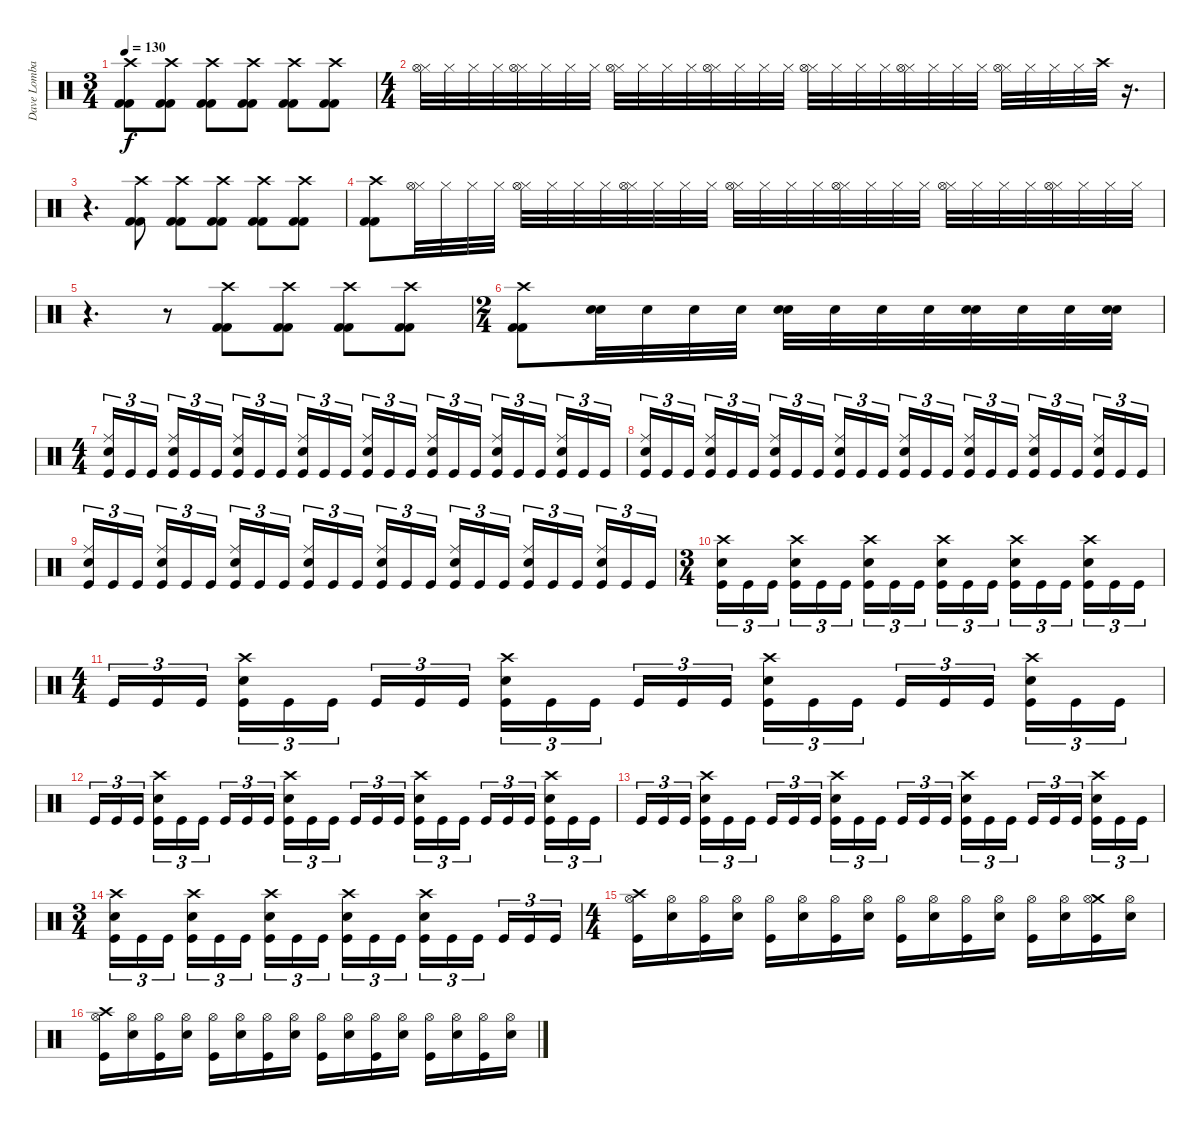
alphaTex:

\track ("Dave Lombardo" "Dave Lomba") {instrument percussion}
\staff {score}
\articulation defaults
\ts (3 4)
\tempo 130
\clef neutral
\ks c
("Crash high (hit)" "Kick (hit) 2" "Kick (hit) 2").8{dy f} ("Crash high (hit)" "Kick (hit) 2" "Kick (hit) 2").8 ("Crash high (hit)" "Kick (hit) 2" "Kick (hit) 2").8 ("Crash high (hit)" "Kick (hit) 2" "Kick (hit) 2").8 ("Crash high (hit)" "Kick (hit) 2" "Kick (hit) 2").8 ("Crash high (hit)" "Kick (hit) 2" "Kick (hit) 2").8 |
\ts (4 4)
("Hi-Hat (closed)" "Hi-Hat (open)").32 "Hi-Hat (closed)".32 "Hi-Hat (closed)".32 "Hi-Hat (closed)".32 ("Hi-Hat (closed)" "Hi-Hat (open)").32 "Hi-Hat (closed)".32 "Hi-Hat (closed)".32 "Hi-Hat (closed)".32 ("Hi-Hat (closed)" "Hi-Hat (open)").32 "Hi-Hat (closed)".32 "Hi-Hat (closed)".32 "Hi-Hat (closed)".32 ("Hi-Hat (closed)" "Hi-Hat (open)").32 "Hi-Hat (closed)".32 "Hi-Hat (closed)".32 "Hi-Hat (closed)".32 ("Hi-Hat (closed)" "Hi-Hat (open)").32 "Hi-Hat (closed)".32 "Hi-Hat (closed)".32 "Hi-Hat (closed)".32 ("Hi-Hat (closed)" "Hi-Hat (open)").32 "Hi-Hat (closed)".32 "Hi-Hat (closed)".32 "Hi-Hat (closed)".32 ("Hi-Hat (closed)" "Hi-Hat (open)").32 "Hi-Hat (closed)".32 "Hi-Hat (closed)".32 "Hi-Hat (closed)".32 "Crash high (hit)".32 r.16{d} |
r.4{d} ("Crash high (hit)" "Kick (hit) 2" "Kick (hit) 2").8 ("Crash high (hit)" "Kick (hit) 2" "Kick (hit) 2").8 ("Crash high (hit)" "Kick (hit) 2" "Kick (hit) 2").8 ("Crash high (hit)" "Kick (hit) 2" "Kick (hit) 2").8 ("Crash high (hit)" "Kick (hit) 2" "Kick (hit) 2").8 |
("Crash high (hit)" "Kick (hit) 2" "Kick (hit) 2").8 ("Hi-Hat (closed)" "Hi-Hat (open)").32 "Hi-Hat (closed)".32 "Hi-Hat (closed)".32 "Hi-Hat (closed)".32 ("Hi-Hat (closed)" "Hi-Hat (open)").32 "Hi-Hat (closed)".32 "Hi-Hat (closed)".32 "Hi-Hat (closed)".32 ("Hi-Hat (closed)" "Hi-Hat (open)").32 "Hi-Hat (closed)".32 "Hi-Hat (closed)".32 "Hi-Hat (closed)".32 ("Hi-Hat (closed)" "Hi-Hat (open)").32 "Hi-Hat (closed)".32 "Hi-Hat (closed)".32 "Hi-Hat (closed)".32 ("Hi-Hat (closed)" "Hi-Hat (open)").32 "Hi-Hat (closed)".32 "Hi-Hat (closed)".32 "Hi-Hat (closed)".32 ("Hi-Hat (closed)" "Hi-Hat (open)").32 "Hi-Hat (closed)".32 "Hi-Hat (closed)".32 "Hi-Hat (closed)".32 ("Hi-Hat (closed)" "Hi-Hat (open)").32 "Hi-Hat (closed)".32 "Hi-Hat (closed)".32 "Hi-Hat (closed)".32 |
r.4{d} r.8 ("Crash high (hit)" "Kick (hit) 2" "Kick (hit) 2").8 ("Crash high (hit)" "Kick (hit) 2" "Kick (hit) 2").8 ("Crash high (hit)" "Kick (hit) 2" "Kick (hit) 2").8 ("Crash high (hit)" "Kick (hit) 2" "Kick (hit) 2").8 |
\ts (2 4)
("Crash high (hit)" "Kick (hit) 2" "Kick (hit) 2").8 ("Electric Snare (hit)" "Snare (hit) 2").32 "Electric Snare (hit)".32 "Electric Snare (hit)".32 "Electric Snare (hit)".32 ("Electric Snare (hit)" "Snare (hit) 2").32 "Electric Snare (hit)".32 "Electric Snare (hit)".32 "Electric Snare (hit)".32 ("Electric Snare (hit)" "Snare (hit) 2").32 "Electric Snare (hit)".32 "Electric Snare (hit)".32 ("Electric Snare (hit)" "Snare (hit) 2").32 |
\ts (4 4)
("Ride (middle)" "Electric Snare (hit)" "Kick (hit)").16{tu (3 2)} "Kick (hit)".16{tu (3 2)} "Kick (hit)".16{tu (3 2)} ("Ride (middle)" "Electric Snare (hit)" "Kick (hit)").16{tu (3 2)} "Kick (hit)".16{tu (3 2)} "Kick (hit)".16{tu (3 2)} ("Ride (middle)" "Electric Snare (hit)" "Kick (hit)").16{tu (3 2)} "Kick (hit)".16{tu (3 2)} "Kick (hit)".16{tu (3 2)} ("Ride (middle)" "Electric Snare (hit)" "Kick (hit)").16{tu (3 2)} "Kick (hit)".16{tu (3 2)} "Kick (hit)".16{tu (3 2)} ("Ride (middle)" "Electric Snare (hit)" "Kick (hit)").16{tu (3 2)} "Kick (hit)".16{tu (3 2)} "Kick (hit)".16{tu (3 2)} ("Ride (middle)" "Electric Snare (hit)" "Kick (hit)").16{tu (3 2)} "Kick (hit)".16{tu (3 2)} "Kick (hit)".16{tu (3 2)} ("Ride (middle)" "Electric Snare (hit)" "Kick (hit)").16{tu (3 2)} "Kick (hit)".16{tu (3 2)} "Kick (hit)".16{tu (3 2)} ("Ride (middle)" "Electric Snare (hit)" "Kick (hit)").16{tu (3 2)} "Kick (hit)".16{tu (3 2)} "Kick (hit)".16{tu (3 2)} |
("Ride (middle)" "Electric Snare (hit)" "Kick (hit)").16{tu (3 2)} "Kick (hit)".16{tu (3 2)} "Kick (hit)".16{tu (3 2)} ("Ride (middle)" "Electric Snare (hit)" "Kick (hit)").16{tu (3 2)} "Kick (hit)".16{tu (3 2)} "Kick (hit)".16{tu (3 2)} ("Ride (middle)" "Electric Snare (hit)" "Kick (hit)").16{tu (3 2)} "Kick (hit)".16{tu (3 2)} "Kick (hit)".16{tu (3 2)} ("Ride (middle)" "Electric Snare (hit)" "Kick (hit)").16{tu (3 2)} "Kick (hit)".16{tu (3 2)} "Kick (hit)".16{tu (3 2)} ("Ride (middle)" "Electric Snare (hit)" "Kick (hit)").16{tu (3 2)} "Kick (hit)".16{tu (3 2)} "Kick (hit)".16{tu (3 2)} ("Ride (middle)" "Electric Snare (hit)" "Kick (hit)").16{tu (3 2)} "Kick (hit)".16{tu (3 2)} "Kick (hit)".16{tu (3 2)} ("Ride (middle)" "Electric Snare (hit)" "Kick (hit)").16{tu (3 2)} "Kick (hit)".16{tu (3 2)} "Kick (hit)".16{tu (3 2)} ("Ride (middle)" "Electric Snare (hit)" "Kick (hit)").16{tu (3 2)} "Kick (hit)".16{tu (3 2)} "Kick (hit)".16{tu (3 2)} |
("Ride (middle)" "Electric Snare (hit)" "Kick (hit)").16{tu (3 2)} "Kick (hit)".16{tu (3 2)} "Kick (hit)".16{tu (3 2)} ("Ride (middle)" "Electric Snare (hit)" "Kick (hit)").16{tu (3 2)} "Kick (hit)".16{tu (3 2)} "Kick (hit)".16{tu (3 2)} ("Ride (middle)" "Electric Snare (hit)" "Kick (hit)").16{tu (3 2)} "Kick (hit)".16{tu (3 2)} "Kick (hit)".16{tu (3 2)} ("Ride (middle)" "Electric Snare (hit)" "Kick (hit)").16{tu (3 2)} "Kick (hit)".16{tu (3 2)} "Kick (hit)".16{tu (3 2)} ("Ride (middle)" "Electric Snare (hit)" "Kick (hit)").16{tu (3 2)} "Kick (hit)".16{tu (3 2)} "Kick (hit)".16{tu (3 2)} ("Ride (middle)" "Electric Snare (hit)" "Kick (hit)").16{tu (3 2)} "Kick (hit)".16{tu (3 2)} "Kick (hit)".16{tu (3 2)} ("Ride (middle)" "Electric Snare (hit)" "Kick (hit)").16{tu (3 2)} "Kick (hit)".16{tu (3 2)} "Kick (hit)".16{tu (3 2)} ("Ride (middle)" "Electric Snare (hit)" "Kick (hit)").16{tu (3 2)} "Kick (hit)".16{tu (3 2)} "Kick (hit)".16{tu (3 2)} |
\ts (3 4)
("Crash high (hit)" "Electric Snare (hit)" "Kick (hit)").16{tu (3 2)} "Kick (hit)".16{tu (3 2)} "Kick (hit)".16{tu (3 2)} ("Crash high (hit)" "Electric Snare (hit)" "Kick (hit)").16{tu (3 2)} "Kick (hit)".16{tu (3 2)} "Kick (hit)".16{tu (3 2)} ("Crash high (hit)" "Electric Snare (hit)" "Kick (hit)").16{tu (3 2)} "Kick (hit)".16{tu (3 2)} "Kick (hit)".16{tu (3 2)} ("Crash high (hit)" "Electric Snare (hit)" "Kick (hit)").16{tu (3 2)} "Kick (hit)".16{tu (3 2)} "Kick (hit)".16{tu (3 2)} ("Crash high (hit)" "Electric Snare (hit)" "Kick (hit)").16{tu (3 2)} "Kick (hit)".16{tu (3 2)} "Kick (hit)".16{tu (3 2)} ("Crash high (hit)" "Electric Snare (hit)" "Kick (hit)").16{tu (3 2)} "Kick (hit)".16{tu (3 2)} "Kick (hit)".16{tu (3 2)} |
\ts (4 4)
"Kick (hit)".16{tu (3 2)} "Kick (hit)".16{tu (3 2)} "Kick (hit)".16{tu (3 2)} ("Crash high (hit)" "Electric Snare (hit)" "Kick (hit)").16{tu (3 2)} "Kick (hit)".16{tu (3 2)} "Kick (hit)".16{tu (3 2)} "Kick (hit)".16{tu (3 2)} "Kick (hit)".16{tu (3 2)} "Kick (hit)".16{tu (3 2)} ("Crash high (hit)" "Electric Snare (hit)" "Kick (hit)").16{tu (3 2)} "Kick (hit)".16{tu (3 2)} "Kick (hit)".16{tu (3 2)} "Kick (hit)".16{tu (3 2)} "Kick (hit)".16{tu (3 2)} "Kick (hit)".16{tu (3 2)} ("Crash high (hit)" "Electric Snare (hit)" "Kick (hit)").16{tu (3 2)} "Kick (hit)".16{tu (3 2)} "Kick (hit)".16{tu (3 2)} "Kick (hit)".16{tu (3 2)} "Kick (hit)".16{tu (3 2)} "Kick (hit)".16{tu (3 2)} ("Crash high (hit)" "Electric Snare (hit)" "Kick (hit)").16{tu (3 2)} "Kick (hit)".16{tu (3 2)} "Kick (hit)".16{tu (3 2)} |
"Kick (hit)".16{tu (3 2)} "Kick (hit)".16{tu (3 2)} "Kick (hit)".16{tu (3 2)} ("Crash high (hit)" "Electric Snare (hit)" "Kick (hit)").16{tu (3 2)} "Kick (hit)".16{tu (3 2)} "Kick (hit)".16{tu (3 2)} "Kick (hit)".16{tu (3 2)} "Kick (hit)".16{tu (3 2)} "Kick (hit)".16{tu (3 2)} ("Crash high (hit)" "Electric Snare (hit)" "Kick (hit)").16{tu (3 2)} "Kick (hit)".16{tu (3 2)} "Kick (hit)".16{tu (3 2)} "Kick (hit)".16{tu (3 2)} "Kick (hit)".16{tu (3 2)} "Kick (hit)".16{tu (3 2)} ("Crash high (hit)" "Electric Snare (hit)" "Kick (hit)").16{tu (3 2)} "Kick (hit)".16{tu (3 2)} "Kick (hit)".16{tu (3 2)} "Kick (hit)".16{tu (3 2)} "Kick (hit)".16{tu (3 2)} "Kick (hit)".16{tu (3 2)} ("Crash high (hit)" "Electric Snare (hit)" "Kick (hit)").16{tu (3 2)} "Kick (hit)".16{tu (3 2)} "Kick (hit)".16{tu (3 2)} |
"Kick (hit)".16{tu (3 2)} "Kick (hit)".16{tu (3 2)} "Kick (hit)".16{tu (3 2)} ("Crash high (hit)" "Electric Snare (hit)" "Kick (hit)").16{tu (3 2)} "Kick (hit)".16{tu (3 2)} "Kick (hit)".16{tu (3 2)} "Kick (hit)".16{tu (3 2)} "Kick (hit)".16{tu (3 2)} "Kick (hit)".16{tu (3 2)} ("Crash high (hit)" "Electric Snare (hit)" "Kick (hit)").16{tu (3 2)} "Kick (hit)".16{tu (3 2)} "Kick (hit)".16{tu (3 2)} "Kick (hit)".16{tu (3 2)} "Kick (hit)".16{tu (3 2)} "Kick (hit)".16{tu (3 2)} ("Crash high (hit)" "Electric Snare (hit)" "Kick (hit)").16{tu (3 2)} "Kick (hit)".16{tu (3 2)} "Kick (hit)".16{tu (3 2)} "Kick (hit)".16{tu (3 2)} "Kick (hit)".16{tu (3 2)} "Kick (hit)".16{tu (3 2)} ("Crash high (hit)" "Electric Snare (hit)" "Kick (hit)").16{tu (3 2)} "Kick (hit)".16{tu (3 2)} "Kick (hit)".16{tu (3 2)} |
\ts (3 4)
("Crash high (hit)" "Electric Snare (hit)" "Kick (hit)").16{tu (3 2)} "Kick (hit)".16{tu (3 2)} "Kick (hit)".16{tu (3 2)} ("Crash high (hit)" "Electric Snare (hit)" "Kick (hit)").16{tu (3 2)} "Kick (hit)".16{tu (3 2)} "Kick (hit)".16{tu (3 2)} ("Crash high (hit)" "Electric Snare (hit)" "Kick (hit)").16{tu (3 2)} "Kick (hit)".16{tu (3 2)} "Kick (hit)".16{tu (3 2)} ("Crash high (hit)" "Electric Snare (hit)" "Kick (hit)").16{tu (3 2)} "Kick (hit)".16{tu (3 2)} "Kick (hit)".16{tu (3 2)} ("Crash high (hit)" "Electric Snare (hit)" "Kick (hit)").16{tu (3 2)} "Kick (hit)".16{tu (3 2)} "Kick (hit)".16{tu (3 2)} "Kick (hit)".16{tu (3 2)} "Kick (hit)".16{tu (3 2)} "Kick (hit)".16{tu (3 2)} |
\ts (4 4)
("Crash high (hit)" "Hi-Hat (open)" "Kick (hit)").16 ("Hi-Hat (open)" "Electric Snare (hit)").16 ("Hi-Hat (open)" "Kick (hit)").16 ("Hi-Hat (open)" "Electric Snare (hit)").16 ("Hi-Hat (open)" "Kick (hit)").16 ("Hi-Hat (open)" "Electric Snare (hit)").16 ("Hi-Hat (open)" "Kick (hit)").16 ("Hi-Hat (open)" "Electric Snare (hit)").16 ("Hi-Hat (open)" "Kick (hit)").16 ("Hi-Hat (open)" "Electric Snare (hit)").16 ("Hi-Hat (open)" "Kick (hit)").16 ("Hi-Hat (open)" "Electric Snare (hit)").16 ("Hi-Hat (open)" "Kick (hit)").16 ("Hi-Hat (open)" "Electric Snare (hit)").16 ("Crash medium (hit)" "Hi-Hat (open)" "Kick (hit)").16 ("Hi-Hat (open)" "Electric Snare (hit)").16 |
("Crash high (hit)" "Hi-Hat (open)" "Kick (hit)").16 ("Hi-Hat (open)" "Electric Snare (hit)").16 ("Hi-Hat (open)" "Kick (hit)").16 ("Hi-Hat (open)" "Electric Snare (hit)").16 ("Hi-Hat (open)" "Kick (hit)").16 ("Hi-Hat (open)" "Electric Snare (hit)").16 ("Hi-Hat (open)" "Kick (hit)").16 ("Hi-Hat (open)" "Electric Snare (hit)").16 ("Hi-Hat (open)" "Kick (hit)").16 ("Hi-Hat (open)" "Electric Snare (hit)").16 ("Hi-Hat (open)" "Kick (hit)").16 ("Hi-Hat (open)" "Electric Snare (hit)").16 ("Hi-Hat (open)" "Kick (hit)").16 ("Hi-Hat (open)" "Electric Snare (hit)").16 ("Hi-Hat (open)" "Kick (hit)").16 ("Hi-Hat (open)" "Electric Snare (hit)").16
